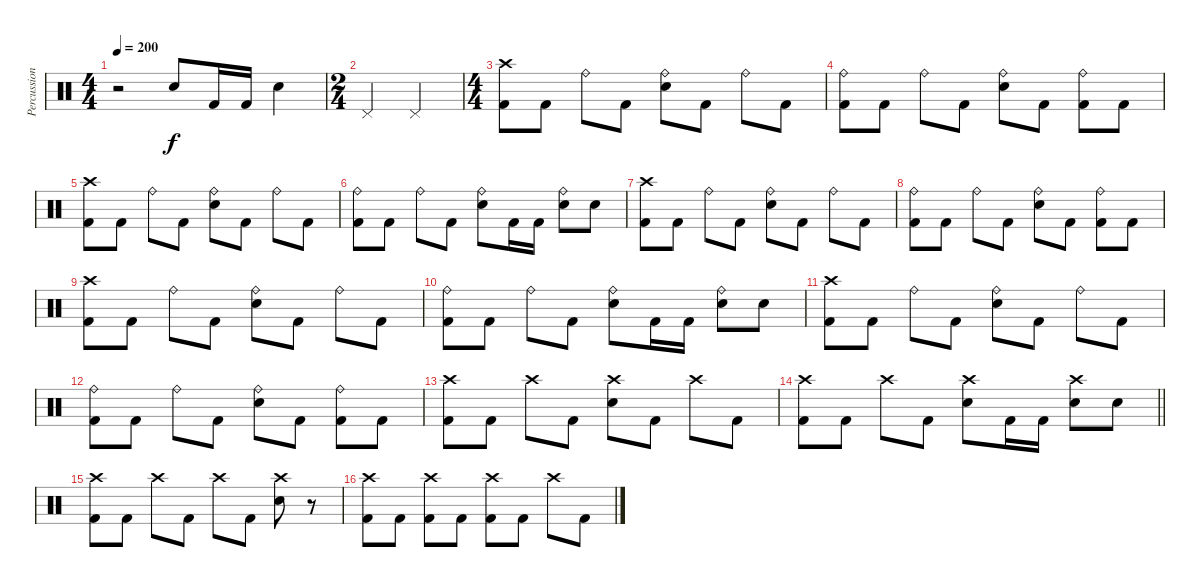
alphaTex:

\track ("Percussion" "Percussion") {instrument percussion}
\staff {score}
\articulation defaults
\ts (4 4)
\tempo 200
\clef neutral
\ks c
r.2{dy f} "Electric Snare (hit)".8 "Kick (hit) 2".16 "Kick (hit) 2".16 "Electric Snare (hit)".4 |
\ts (2 4)
"Pedal Hi-Hat (hit)".4 "Pedal Hi-Hat (hit)".4 |
\ts (4 4)
("Crash high (hit)" "Kick (hit) 2").8 "Kick (hit) 2".8 "Ride (bell)".8 "Kick (hit) 2".8 ("Ride (bell)" "Electric Snare (hit)").8 "Kick (hit) 2".8 "Ride (bell)".8 "Kick (hit) 2".8 |
("Ride (bell)" "Kick (hit) 2").8 "Kick (hit) 2".8 "Ride (bell)".8 "Kick (hit) 2".8 ("Ride (bell)" "Electric Snare (hit)").8 "Kick (hit) 2".8 ("Ride (bell)" "Kick (hit) 2").8 "Kick (hit) 2".8 |
("Crash high (hit)" "Kick (hit) 2").8 "Kick (hit) 2".8 "Ride (bell)".8 "Kick (hit) 2".8 ("Ride (bell)" "Electric Snare (hit)").8 "Kick (hit) 2".8 "Ride (bell)".8 "Kick (hit) 2".8 |
("Ride (bell)" "Kick (hit) 2").8 "Kick (hit) 2".8 "Ride (bell)".8 "Kick (hit) 2".8 ("Ride (bell)" "Electric Snare (hit)").8 "Kick (hit) 2".16 "Kick (hit) 2".16 ("Ride (bell)" "Electric Snare (hit)").8 "Electric Snare (hit)".8 |
("Crash high (hit)" "Kick (hit) 2").8 "Kick (hit) 2".8 "Ride (bell)".8 "Kick (hit) 2".8 ("Ride (bell)" "Electric Snare (hit)").8 "Kick (hit) 2".8 "Ride (bell)".8 "Kick (hit) 2".8 |
("Ride (bell)" "Kick (hit) 2").8 "Kick (hit) 2".8 "Ride (bell)".8 "Kick (hit) 2".8 ("Ride (bell)" "Electric Snare (hit)").8 "Kick (hit) 2".8 ("Ride (bell)" "Kick (hit) 2").8 "Kick (hit) 2".8 |
("Crash high (hit)" "Kick (hit) 2").8 "Kick (hit) 2".8 "Ride (bell)".8 "Kick (hit) 2".8 ("Ride (bell)" "Electric Snare (hit)").8 "Kick (hit) 2".8 "Ride (bell)".8 "Kick (hit) 2".8 |
("Ride (bell)" "Kick (hit) 2").8 "Kick (hit) 2".8 "Ride (bell)".8 "Kick (hit) 2".8 ("Ride (bell)" "Electric Snare (hit)").8 "Kick (hit) 2".16 "Kick (hit) 2".16 ("Ride (bell)" "Electric Snare (hit)").8 "Electric Snare (hit)".8 |
("Crash high (hit)" "Kick (hit) 2").8 "Kick (hit) 2".8 "Ride (bell)".8 "Kick (hit) 2".8 ("Ride (bell)" "Electric Snare (hit)").8 "Kick (hit) 2".8 "Ride (bell)".8 "Kick (hit) 2".8 |
("Ride (bell)" "Kick (hit) 2").8 "Kick (hit) 2".8 "Ride (bell)".8 "Kick (hit) 2".8 ("Ride (bell)" "Electric Snare (hit)").8 "Kick (hit) 2".8 ("Ride (bell)" "Kick (hit) 2").8 "Kick (hit) 2".8 |
("Crash high (hit)" "Kick (hit) 2").8 "Kick (hit) 2".8 "Crash high (hit)".8 "Kick (hit) 2".8 ("Crash high (hit)" "Electric Snare (hit)").8 "Kick (hit) 2".8 "Crash high (hit)".8 "Kick (hit) 2".8 |
\barLineRight lightlight
("Crash high (hit)" "Kick (hit) 2").8 "Kick (hit) 2".8 "Crash high (hit)".8 "Kick (hit) 2".8 ("Crash high (hit)" "Electric Snare (hit)").8 "Kick (hit) 2".16 "Kick (hit) 2".16 ("Crash high (hit)" "Electric Snare (hit)").8 "Electric Snare (hit)".8 |
("Crash high (hit)" "Kick (hit) 2").8 "Kick (hit) 2".8 "Crash high (hit)".8 "Kick (hit) 2".8 "Crash high (hit)".8 "Kick (hit) 2".8 ("Crash high (hit)" "Electric Snare (hit)").8 r.8 |
("Crash high (hit)" "Kick (hit) 2").8 "Kick (hit) 2".8 ("Crash high (hit)" "Kick (hit) 2").8 "Kick (hit) 2".8 ("Crash high (hit)" "Kick (hit) 2").8 "Kick (hit) 2".8 "Crash high (hit)".8 "Kick (hit) 2".8
